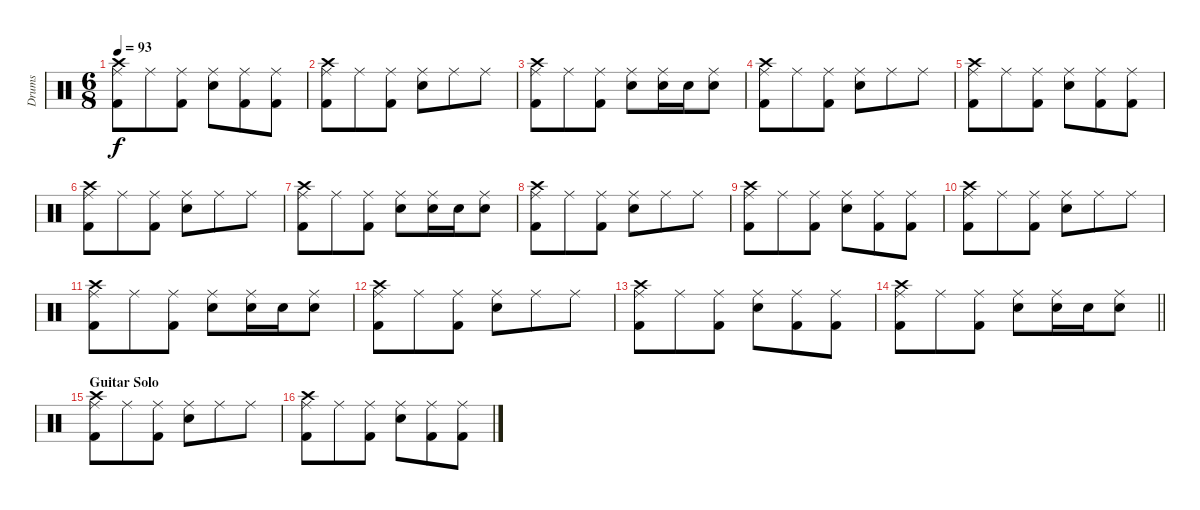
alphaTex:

\track ("Drums" "Drums") {instrument percussion}
\staff {score}
\articulation defaults
\ts (6 8)
\tempo 93
\clef neutral
\ks c
("Crash high (hit)" "Ride (middle)" "Kick (hit) 2").8{dy f} "Ride (middle)".8 ("Ride (middle)" "Kick (hit) 2").8 ("Ride (middle)" "Snare (hit) 2").8 ("Ride (middle)" "Kick (hit) 2").8 ("Ride (middle)" "Kick (hit) 2").8 |
("Crash high (hit)" "Ride (middle)" "Kick (hit) 2").8 "Ride (middle)".8 ("Ride (middle)" "Kick (hit) 2").8 ("Ride (middle)" "Snare (hit) 2").8 "Ride (middle)".8 "Ride (middle)".8 |
("Crash high (hit)" "Ride (middle)" "Kick (hit) 2").8 "Ride (middle)".8 ("Ride (middle)" "Kick (hit) 2").8 ("Ride (middle)" "Snare (hit) 2").8 ("Ride (middle)" "Snare (hit) 2").16 "Snare (hit) 2".16 ("Ride (middle)" "Snare (hit) 2").8 |
("Crash high (hit)" "Ride (middle)" "Kick (hit) 2").8 "Ride (middle)".8 ("Ride (middle)" "Kick (hit) 2").8 ("Ride (middle)" "Snare (hit) 2").8 "Ride (middle)".8 "Ride (middle)".8 |
("Crash high (hit)" "Ride (middle)" "Kick (hit) 2").8 "Ride (middle)".8 ("Ride (middle)" "Kick (hit) 2").8 ("Ride (middle)" "Snare (hit) 2").8 ("Ride (middle)" "Kick (hit) 2").8 ("Ride (middle)" "Kick (hit) 2").8 |
("Crash high (hit)" "Ride (middle)" "Kick (hit) 2").8 "Ride (middle)".8 ("Ride (middle)" "Kick (hit) 2").8 ("Ride (middle)" "Snare (hit) 2").8 "Ride (middle)".8 "Ride (middle)".8 |
("Crash high (hit)" "Ride (middle)" "Kick (hit) 2").8 "Ride (middle)".8 ("Ride (middle)" "Kick (hit) 2").8 ("Ride (middle)" "Snare (hit) 2").8 ("Ride (middle)" "Snare (hit) 2").16 "Snare (hit) 2".16 ("Ride (middle)" "Snare (hit) 2").8 |
("Crash high (hit)" "Ride (middle)" "Kick (hit) 2").8 "Ride (middle)".8 ("Ride (middle)" "Kick (hit) 2").8 ("Ride (middle)" "Snare (hit) 2").8 "Ride (middle)".8 "Ride (middle)".8 |
("Crash high (hit)" "Ride (middle)" "Kick (hit) 2").8 "Ride (middle)".8 ("Ride (middle)" "Kick (hit) 2").8 ("Ride (middle)" "Snare (hit) 2").8 ("Ride (middle)" "Kick (hit) 2").8 ("Ride (middle)" "Kick (hit) 2").8 |
("Crash high (hit)" "Ride (middle)" "Kick (hit) 2").8 "Ride (middle)".8 ("Ride (middle)" "Kick (hit) 2").8 ("Ride (middle)" "Snare (hit) 2").8 "Ride (middle)".8 "Ride (middle)".8 |
("Crash high (hit)" "Ride (middle)" "Kick (hit) 2").8 "Ride (middle)".8 ("Ride (middle)" "Kick (hit) 2").8 ("Ride (middle)" "Snare (hit) 2").8 ("Ride (middle)" "Snare (hit) 2").16 "Snare (hit) 2".16 ("Ride (middle)" "Snare (hit) 2").8 |
("Crash high (hit)" "Ride (middle)" "Kick (hit) 2").8 "Ride (middle)".8 ("Ride (middle)" "Kick (hit) 2").8 ("Ride (middle)" "Snare (hit) 2").8 "Ride (middle)".8 "Ride (middle)".8 |
("Crash high (hit)" "Ride (middle)" "Kick (hit) 2").8 "Ride (middle)".8 ("Ride (middle)" "Kick (hit) 2").8 ("Ride (middle)" "Snare (hit) 2").8 ("Ride (middle)" "Kick (hit) 2").8 ("Ride (middle)" "Kick (hit) 2").8 |
\barLineRight lightlight
("Crash high (hit)" "Ride (middle)" "Kick (hit) 2").8 "Ride (middle)".8 ("Ride (middle)" "Kick (hit) 2").8 ("Ride (middle)" "Snare (hit) 2").8 ("Ride (middle)" "Snare (hit) 2").16 "Snare (hit) 2".16 ("Ride (middle)" "Snare (hit) 2").8 |
\section ("" "Guitar Solo")
("Crash high (hit)" "Ride (middle)" "Kick (hit) 2").8 "Ride (middle)".8 ("Ride (middle)" "Kick (hit) 2").8 ("Ride (middle)" "Snare (hit) 2").8 "Ride (middle)".8 "Ride (middle)".8 |
("Crash high (hit)" "Ride (middle)" "Kick (hit) 2").8 "Ride (middle)".8 ("Ride (middle)" "Kick (hit) 2").8 ("Ride (middle)" "Snare (hit) 2").8 ("Ride (middle)" "Kick (hit) 2").8 ("Ride (middle)" "Kick (hit) 2").8
